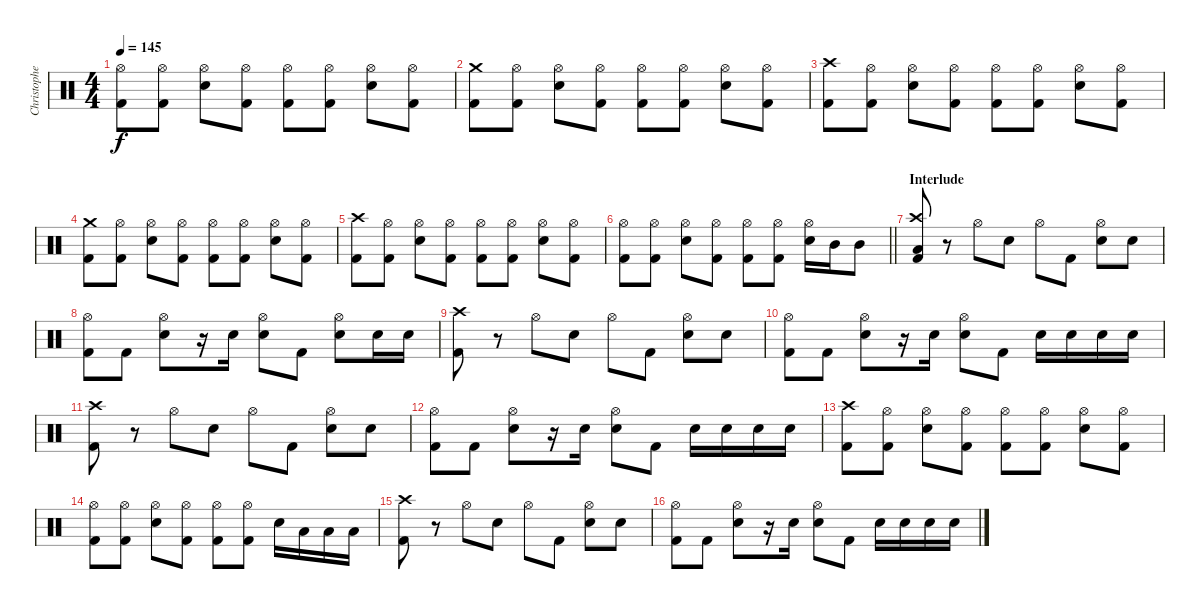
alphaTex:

\track ("Christopher - Drums" "Christophe") {instrument percussion}
\staff {score}
\articulation defaults
\ts (4 4)
\tempo 145
\clef neutral
\ks c
("Hi-Hat (open)" "Kick (hit) 2").8{dy f} ("Hi-Hat (open)" "Kick (hit) 2").8 ("Hi-Hat (open)" "Electric Snare (hit)").8 ("Hi-Hat (open)" "Kick (hit) 2").8 ("Hi-Hat (open)" "Kick (hit) 2").8 ("Hi-Hat (open)" "Kick (hit) 2").8 ("Hi-Hat (open)" "Electric Snare (hit)").8 ("Hi-Hat (open)" "Kick (hit) 2").8 |
("Crash medium (hit)" "Kick (hit) 2").8 ("Hi-Hat (open)" "Kick (hit) 2").8 ("Hi-Hat (open)" "Electric Snare (hit)").8 ("Hi-Hat (open)" "Kick (hit) 2").8 ("Hi-Hat (open)" "Kick (hit) 2").8 ("Hi-Hat (open)" "Kick (hit) 2").8 ("Hi-Hat (open)" "Electric Snare (hit)").8 ("Hi-Hat (open)" "Kick (hit) 2").8 |
("Crash high (hit)" "Kick (hit) 2").8 ("Hi-Hat (open)" "Kick (hit) 2").8 ("Hi-Hat (open)" "Electric Snare (hit)").8 ("Hi-Hat (open)" "Kick (hit) 2").8 ("Hi-Hat (open)" "Kick (hit) 2").8 ("Hi-Hat (open)" "Kick (hit) 2").8 ("Hi-Hat (open)" "Electric Snare (hit)").8 ("Hi-Hat (open)" "Kick (hit) 2").8 |
("Crash medium (hit)" "Kick (hit) 2").8 ("Hi-Hat (open)" "Kick (hit) 2").8 ("Hi-Hat (open)" "Electric Snare (hit)").8 ("Hi-Hat (open)" "Kick (hit) 2").8 ("Hi-Hat (open)" "Kick (hit) 2").8 ("Hi-Hat (open)" "Kick (hit) 2").8 ("Hi-Hat (open)" "Electric Snare (hit)").8 ("Hi-Hat (open)" "Kick (hit) 2").8 |
("Crash high (hit)" "Kick (hit) 2").8 ("Hi-Hat (open)" "Kick (hit) 2").8 ("Hi-Hat (open)" "Electric Snare (hit)").8 ("Hi-Hat (open)" "Kick (hit) 2").8 ("Hi-Hat (open)" "Kick (hit) 2").8 ("Hi-Hat (open)" "Kick (hit) 2").8 ("Hi-Hat (open)" "Electric Snare (hit)").8 ("Hi-Hat (open)" "Kick (hit) 2").8 |
\barLineRight lightlight
("Hi-Hat (open)" "Kick (hit) 2").8 ("Hi-Hat (open)" "Kick (hit) 2").8 ("Hi-Hat (open)" "Electric Snare (hit)").8 ("Hi-Hat (open)" "Kick (hit) 2").8 ("Hi-Hat (open)" "Kick (hit) 2").8 ("Hi-Hat (open)" "Kick (hit) 2").8 ("Hi-Hat (open)" "Electric Snare (hit)").16 "Mid Tom (hit)".16 "Mid Tom (hit)".8 |
\section ("" "Interlude")
("Crash high (hit)" "Low Tom (hit)" "Kick (hit) 2").8 r.8 "Hi-Hat (open)".8 "Electric Snare (hit)".8 "Hi-Hat (open)".8 "Kick (hit) 2".8 ("Hi-Hat (open)" "Electric Snare (hit)").8 "Electric Snare (hit)".8 |
("Hi-Hat (open)" "Kick (hit) 2").8 "Kick (hit) 2".8 ("Hi-Hat (open)" "Electric Snare (hit)").8 r.16 "Electric Snare (hit)".16 ("Hi-Hat (open)" "Electric Snare (hit)").8 "Kick (hit) 2".8 ("Hi-Hat (open)" "Electric Snare (hit)").8 "Electric Snare (hit)".16 "Electric Snare (hit)".16 |
("Crash high (hit)" "Kick (hit) 2").8 r.8 "Hi-Hat (open)".8 "Electric Snare (hit)".8 "Hi-Hat (open)".8 "Kick (hit) 2".8 ("Hi-Hat (open)" "Electric Snare (hit)").8 "Electric Snare (hit)".8 |
("Hi-Hat (open)" "Kick (hit) 2").8 "Kick (hit) 2".8 ("Hi-Hat (open)" "Electric Snare (hit)").8 r.16 "Electric Snare (hit)".16 ("Hi-Hat (open)" "Electric Snare (hit)").8 "Kick (hit) 2".8 "Electric Snare (hit)".16 "Electric Snare (hit)".16 "Electric Snare (hit)".16 "Electric Snare (hit)".16 |
("Crash high (hit)" "Kick (hit) 2").8 r.8 "Hi-Hat (open)".8 "Electric Snare (hit)".8 "Hi-Hat (open)".8 "Kick (hit) 2".8 ("Hi-Hat (open)" "Electric Snare (hit)").8 "Electric Snare (hit)".8 |
("Hi-Hat (open)" "Kick (hit) 2").8 "Kick (hit) 2".8 ("Hi-Hat (open)" "Electric Snare (hit)").8 r.16 "Electric Snare (hit)".16 ("Hi-Hat (open)" "Electric Snare (hit)").8 "Kick (hit) 2".8 "Electric Snare (hit)".16 "Electric Snare (hit)".16 "Electric Snare (hit)".16 "Electric Snare (hit)".16 |
("Crash high (hit)" "Kick (hit) 2").8 ("Hi-Hat (open)" "Kick (hit) 2").8 ("Hi-Hat (open)" "Electric Snare (hit)").8 ("Hi-Hat (open)" "Kick (hit) 2").8 ("Hi-Hat (open)" "Kick (hit) 2").8 ("Hi-Hat (open)" "Kick (hit) 2").8 ("Hi-Hat (open)" "Electric Snare (hit)").8 ("Hi-Hat (open)" "Kick (hit) 2").8 |
("Hi-Hat (open)" "Kick (hit) 2").8 ("Hi-Hat (open)" "Kick (hit) 2").8 ("Hi-Hat (open)" "Electric Snare (hit)").8 ("Hi-Hat (open)" "Kick (hit) 2").8 ("Hi-Hat (open)" "Kick (hit) 2").8 ("Hi-Hat (open)" "Kick (hit) 2").8 "Electric Snare (hit)".16 "Low Tom (hit)".16 "Low Tom (hit)".16 "Low Tom (hit)".16 |
("Crash high (hit)" "Kick (hit) 2").8 r.8 "Hi-Hat (open)".8 "Electric Snare (hit)".8 "Hi-Hat (open)".8 "Kick (hit) 2".8 ("Hi-Hat (open)" "Electric Snare (hit)").8 "Electric Snare (hit)".8 |
("Hi-Hat (open)" "Kick (hit) 2").8 "Kick (hit) 2".8 ("Hi-Hat (open)" "Electric Snare (hit)").8 r.16 "Electric Snare (hit)".16 ("Hi-Hat (open)" "Electric Snare (hit)").8 "Kick (hit) 2".8 "Electric Snare (hit)".16 "Electric Snare (hit)".16 "Electric Snare (hit)".16 "Electric Snare (hit)".16
